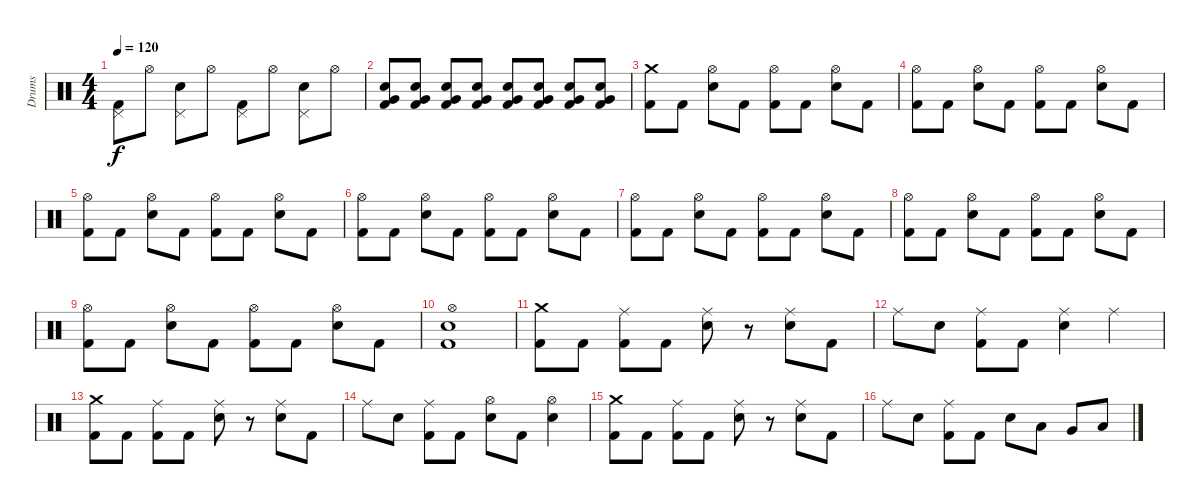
\track ("Drums" "Drums") {instrument percussion}
\staff {score}
\articulation defaults
\ts (4 4)
\tempo 120
\clef neutral
\ks c
("Pedal Hi-Hat (hit)" "Kick (hit) 2").8{dy f} "Hi-Hat (open)".8 ("Pedal Hi-Hat (hit)" "Electric Snare (hit)").8 "Hi-Hat (open)".8 ("Pedal Hi-Hat (hit)" "Kick (hit) 2").8 "Hi-Hat (open)".8 ("Pedal Hi-Hat (hit)" "Electric Snare (hit)").8 "Hi-Hat (open)".8 |
("Very Low Tom (hit)" "Electric Snare (hit)" "Kick (hit) 2").8 ("Very Low Tom (hit)" "Electric Snare (hit)" "Kick (hit) 2").8 ("Very Low Tom (hit)" "Electric Snare (hit)" "Kick (hit) 2").8 ("Very Low Tom (hit)" "Electric Snare (hit)" "Kick (hit) 2").8 ("Very Low Tom (hit)" "Electric Snare (hit)" "Kick (hit) 2").8 ("Very Low Tom (hit)" "Electric Snare (hit)" "Kick (hit) 2").8 ("Very Low Tom (hit)" "Electric Snare (hit)" "Kick (hit) 2").8 ("Very Low Tom (hit)" "Electric Snare (hit)" "Kick (hit) 2").8 |
("Crash medium (hit)" "Kick (hit) 2").8 "Kick (hit) 2".8 ("Hi-Hat (open)" "Electric Snare (hit)").8 "Kick (hit) 2".8 ("Hi-Hat (open)" "Kick (hit) 2").8 "Kick (hit) 2".8 ("Hi-Hat (open)" "Electric Snare (hit)").8 "Kick (hit) 2".8 |
("Hi-Hat (open)" "Kick (hit) 2").8 "Kick (hit) 2".8 ("Hi-Hat (open)" "Electric Snare (hit)").8 "Kick (hit) 2".8 ("Hi-Hat (open)" "Kick (hit) 2").8 "Kick (hit) 2".8 ("Hi-Hat (open)" "Electric Snare (hit)").8 "Kick (hit) 2".8 |
("Hi-Hat (open)" "Kick (hit) 2").8 "Kick (hit) 2".8 ("Hi-Hat (open)" "Electric Snare (hit)").8 "Kick (hit) 2".8 ("Hi-Hat (open)" "Kick (hit) 2").8 "Kick (hit) 2".8 ("Hi-Hat (open)" "Electric Snare (hit)").8 "Kick (hit) 2".8 |
("Hi-Hat (open)" "Kick (hit) 2").8 "Kick (hit) 2".8 ("Hi-Hat (open)" "Electric Snare (hit)").8 "Kick (hit) 2".8 ("Hi-Hat (open)" "Kick (hit) 2").8 "Kick (hit) 2".8 ("Hi-Hat (open)" "Electric Snare (hit)").8 "Kick (hit) 2".8 |
("Hi-Hat (open)" "Kick (hit) 2").8 "Kick (hit) 2".8 ("Hi-Hat (open)" "Electric Snare (hit)").8 "Kick (hit) 2".8 ("Hi-Hat (open)" "Kick (hit) 2").8 "Kick (hit) 2".8 ("Hi-Hat (open)" "Electric Snare (hit)").8 "Kick (hit) 2".8 |
("Hi-Hat (open)" "Kick (hit) 2").8 "Kick (hit) 2".8 ("Hi-Hat (open)" "Electric Snare (hit)").8 "Kick (hit) 2".8 ("Hi-Hat (open)" "Kick (hit) 2").8 "Kick (hit) 2".8 ("Hi-Hat (open)" "Electric Snare (hit)").8 "Kick (hit) 2".8 |
("Hi-Hat (open)" "Kick (hit) 2").8 "Kick (hit) 2".8 ("Hi-Hat (open)" "Electric Snare (hit)").8 "Kick (hit) 2".8 ("Hi-Hat (open)" "Kick (hit) 2").8 "Kick (hit) 2".8 ("Hi-Hat (open)" "Electric Snare (hit)").8 "Kick (hit) 2".8 |
("Hi-Hat (open)" "Electric Snare (hit)" "Kick (hit) 2").1 |
("Crash medium (hit)" "Kick (hit) 2").8 "Kick (hit) 2".8 ("Ride (middle)" "Kick (hit) 2").8 "Kick (hit) 2".8 ("Ride (middle)" "Electric Snare (hit)").8 r.8 ("Ride (middle)" "Electric Snare (hit)").8 "Kick (hit) 2".8 |
"Ride (middle)".8 "Electric Snare (hit)".8 ("Ride (middle)" "Kick (hit) 2").8 "Kick (hit) 2".8 ("Ride (middle)" "Electric Snare (hit)").4 "Ride (middle)".4 |
("Crash medium (hit)" "Kick (hit) 2").8 "Kick (hit) 2".8 ("Ride (middle)" "Kick (hit) 2").8 "Kick (hit) 2".8 ("Ride (middle)" "Electric Snare (hit)").8 r.8 ("Ride (middle)" "Electric Snare (hit)").8 "Kick (hit) 2".8 |
"Ride (middle)".8 "Electric Snare (hit)".8 ("Ride (middle)" "Kick (hit) 2").8 "Kick (hit) 2".8 ("Hi-Hat (open)" "Electric Snare (hit)").8 "Kick (hit) 2".8 ("Hi-Hat (open)" "Electric Snare (hit)").4 |
("Crash medium (hit)" "Kick (hit) 2").8 "Kick (hit) 2".8 ("Ride (middle)" "Kick (hit) 2").8 "Kick (hit) 2".8 ("Ride (middle)" "Electric Snare (hit)").8 r.8 ("Ride (middle)" "Electric Snare (hit)").8 "Kick (hit) 2".8 |
"Ride (middle)".8 "Electric Snare (hit)".8 ("Ride (middle)" "Kick (hit) 2").8 "Kick (hit) 2".8 "Electric Snare (hit)".8 "Low Tom (hit)".8 "Very Low Tom (hit)".8 "Low Floor Tom (hit)".8
